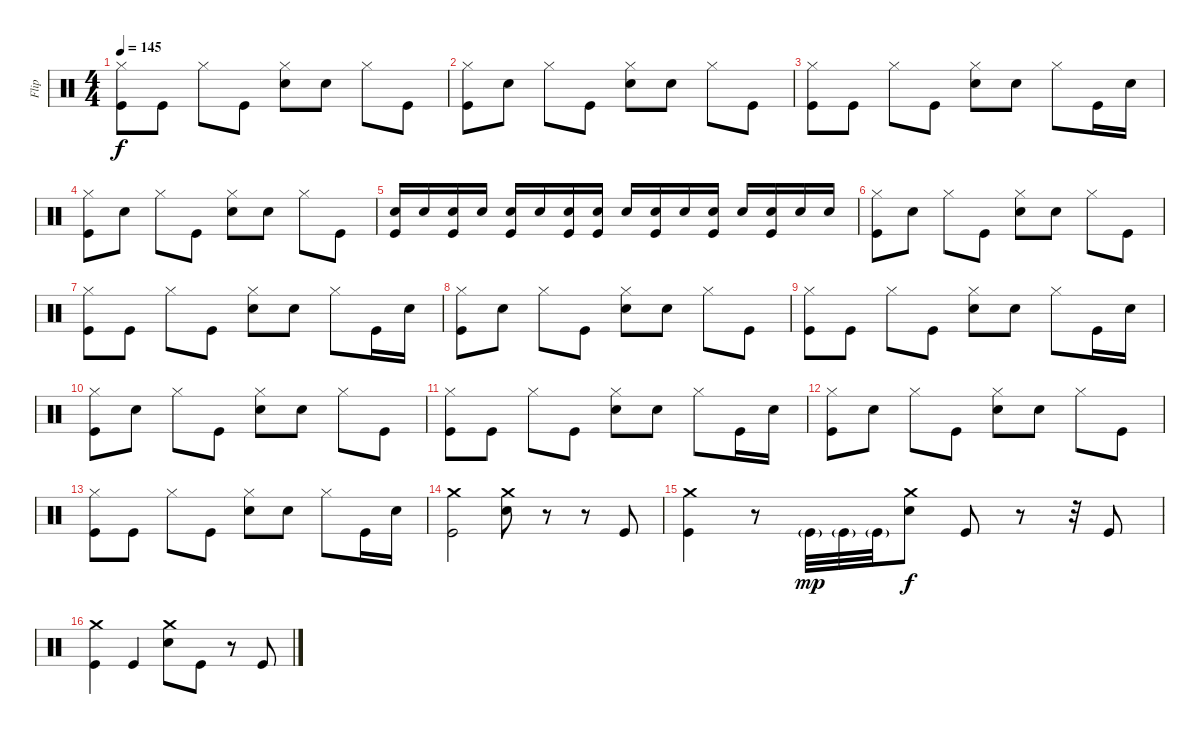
\track ("Flip" "Flip") {instrument percussion}
\staff {score}
\articulation defaults
\ts (4 4)
\tempo 145
\clef neutral
\ks c
("Hi-Hat (closed)" "Kick (hit)").8{dy f} "Kick (hit)".8 "Hi-Hat (closed)".8 "Kick (hit)".8 ("Hi-Hat (closed)" "Snare (hit) 2").8 "Snare (hit) 2".8 "Hi-Hat (closed)".8 "Kick (hit)".8 |
("Hi-Hat (closed)" "Kick (hit)").8 "Snare (hit) 2".8 "Hi-Hat (closed)".8 "Kick (hit)".8 ("Hi-Hat (closed)" "Snare (hit) 2").8 "Snare (hit) 2".8 "Hi-Hat (closed)".8 "Kick (hit)".8 |
("Hi-Hat (closed)" "Kick (hit)").8 "Kick (hit)".8 "Hi-Hat (closed)".8 "Kick (hit)".8 ("Hi-Hat (closed)" "Snare (hit) 2").8 "Snare (hit) 2".8 "Hi-Hat (closed)".8 "Kick (hit)".16 "Snare (hit) 2".16 |
("Hi-Hat (closed)" "Kick (hit)").8 "Snare (hit) 2".8 "Hi-Hat (closed)".8 "Kick (hit)".8 ("Hi-Hat (closed)" "Snare (hit) 2").8 "Snare (hit) 2".8 "Hi-Hat (closed)".8 "Kick (hit)".8 |
("Snare (hit) 2" "Kick (hit)").16 "Snare (hit) 2".16 ("Snare (hit) 2" "Kick (hit)").16 "Snare (hit) 2".16 ("Snare (hit) 2" "Kick (hit)").16 "Snare (hit) 2".16 ("Snare (hit) 2" "Kick (hit)").16 ("Snare (hit) 2" "Kick (hit)").16 "Snare (hit) 2".16 ("Snare (hit) 2" "Kick (hit)").16 "Snare (hit) 2".16 ("Snare (hit) 2" "Kick (hit)").16 "Snare (hit) 2".16 ("Snare (hit) 2" "Kick (hit)").16 "Snare (hit) 2".16 "Snare (hit) 2".16 |
("Hi-Hat (closed)" "Kick (hit)").8 "Snare (hit) 2".8 "Hi-Hat (closed)".8 "Kick (hit)".8 ("Hi-Hat (closed)" "Snare (hit) 2").8 "Snare (hit) 2".8 "Hi-Hat (closed)".8 "Kick (hit)".8 |
("Hi-Hat (closed)" "Kick (hit)").8 "Kick (hit)".8 "Hi-Hat (closed)".8 "Kick (hit)".8 ("Hi-Hat (closed)" "Snare (hit) 2").8 "Snare (hit) 2".8 "Hi-Hat (closed)".8 "Kick (hit)".16 "Snare (hit) 2".16 |
("Hi-Hat (closed)" "Kick (hit)").8 "Snare (hit) 2".8 "Hi-Hat (closed)".8 "Kick (hit)".8 ("Hi-Hat (closed)" "Snare (hit) 2").8 "Snare (hit) 2".8 "Hi-Hat (closed)".8 "Kick (hit)".8 |
("Hi-Hat (closed)" "Kick (hit)").8 "Kick (hit)".8 "Hi-Hat (closed)".8 "Kick (hit)".8 ("Hi-Hat (closed)" "Snare (hit) 2").8 "Snare (hit) 2".8 "Hi-Hat (closed)".8 "Kick (hit)".16 "Snare (hit) 2".16 |
("Hi-Hat (closed)" "Kick (hit)").8 "Snare (hit) 2".8 "Hi-Hat (closed)".8 "Kick (hit)".8 ("Hi-Hat (closed)" "Snare (hit) 2").8 "Snare (hit) 2".8 "Hi-Hat (closed)".8 "Kick (hit)".8 |
("Hi-Hat (closed)" "Kick (hit)").8 "Kick (hit)".8 "Hi-Hat (closed)".8 "Kick (hit)".8 ("Hi-Hat (closed)" "Snare (hit) 2").8 "Snare (hit) 2".8 "Hi-Hat (closed)".8 "Kick (hit)".16 "Snare (hit) 2".16 |
("Hi-Hat (closed)" "Kick (hit)").8 "Snare (hit) 2".8 "Hi-Hat (closed)".8 "Kick (hit)".8 ("Hi-Hat (closed)" "Snare (hit) 2").8 "Snare (hit) 2".8 "Hi-Hat (closed)".8 "Kick (hit)".8 |
("Hi-Hat (closed)" "Kick (hit)").8 "Kick (hit)".8 "Hi-Hat (closed)".8 "Kick (hit)".8 ("Hi-Hat (closed)" "Snare (hit) 2").8 "Snare (hit) 2".8 "Hi-Hat (closed)".8 "Kick (hit)".16 "Snare (hit) 2".16 |
("Crash medium (hit)" "Kick (hit)").2 ("Crash medium (hit)" "Snare (hit) 2").8 r.8 r.8 "Kick (hit)".8 |
("Crash medium (hit)" "Kick (hit)").4 r.8 "Kick (hit)"{g}.32{dy mp} "Kick (hit)"{g}.32 "Kick (hit)"{g}.32 ("Crash medium (hit)" "Snare (hit) 2").8{dy f} "Kick (hit)".8 r.8 r.32 "Kick (hit)".8 |
("Crash medium (hit)" "Kick (hit)").4 "Kick (hit)".4 ("Crash medium (hit)" "Snare (hit) 2").8 "Kick (hit)".8 r.8 "Kick (hit)".8
